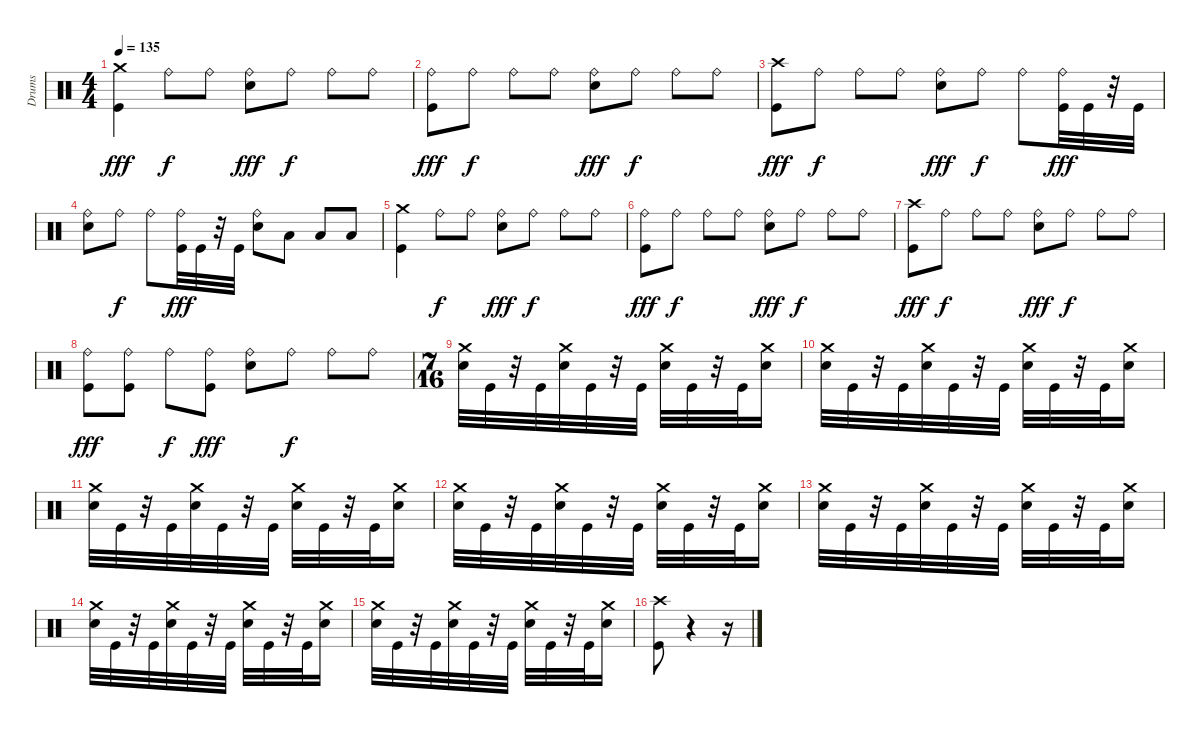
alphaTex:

\track ("Drums" "Drums") {instrument percussion}
\staff {score}
\articulation defaults
\ts (4 4)
\tempo 135
\clef neutral
\ks c
("Kick (hit)" "Crash medium (hit)").4{dy fff} "Ride (bell)".8{dy f} "Ride (bell)".8 ("Electric Snare (hit)" "Ride (bell)").8{dy fff} "Ride (bell)".8{dy f} "Ride (bell)".8 "Ride (bell)".8 |
("Kick (hit)" "Ride (bell)").8{dy fff} "Ride (bell)".8{dy f} "Ride (bell)".8 "Ride (bell)".8 ("Electric Snare (hit)" "Ride (bell)").8{dy fff} "Ride (bell)".8{dy f} "Ride (bell)".8 "Ride (bell)".8 |
("Kick (hit)" "Crash high (hit)").8{dy fff} "Ride (bell)".8{dy f} "Ride (bell)".8 "Ride (bell)".8 ("Electric Snare (hit)" "Ride (bell)").8{dy fff} "Ride (bell)".8{dy f} "Ride (bell)".8 ("Kick (hit)" "Ride (bell)").32{dy fff} "Kick (hit)".32 r.32 "Kick (hit)".32 |
("Ride (bell)" "Electric Snare (hit)").8 "Ride (bell)".8{dy f} "Ride (bell)".8 ("Kick (hit)" "Ride (bell)").32{dy fff} "Kick (hit)".32 r.32 "Kick (hit)".32 ("Electric Snare (hit)" "Ride (bell)").8 "Low Floor Tom (hit)".8 "Low Floor Tom (hit)".8 "Low Floor Tom (hit)".8 |
("Kick (hit)" "Crash medium (hit)").4 "Ride (bell)".8{dy f} "Ride (bell)".8 ("Electric Snare (hit)" "Ride (bell)").8{dy fff} "Ride (bell)".8{dy f} "Ride (bell)".8 "Ride (bell)".8 |
("Kick (hit)" "Ride (bell)").8{dy fff} "Ride (bell)".8{dy f} "Ride (bell)".8 "Ride (bell)".8 ("Electric Snare (hit)" "Ride (bell)").8{dy fff} "Ride (bell)".8{dy f} "Ride (bell)".8 "Ride (bell)".8 |
("Kick (hit)" "Crash high (hit)").8{dy fff} "Ride (bell)".8{dy f} "Ride (bell)".8 "Ride (bell)".8 ("Electric Snare (hit)" "Ride (bell)").8{dy fff} "Ride (bell)".8{dy f} "Ride (bell)".8 "Ride (bell)".8 |
("Kick (hit)" "Ride (bell)").8{dy fff} ("Kick (hit)" "Ride (bell)").8 "Ride (bell)".8{dy f} ("Kick (hit)" "Ride (bell)").8{dy fff} ("Electric Snare (hit)" "Ride (bell)").8 "Ride (bell)".8{dy f} "Ride (bell)".8 "Ride (bell)".8 |
\ts (7 16)
("Electric Snare (hit)" "Crash medium (hit)").32 "Kick (hit)".32 r.32 "Kick (hit)".32 ("Electric Snare (hit)" "Crash medium (hit)").32 "Kick (hit)".32 r.32 "Kick (hit)".32 ("Electric Snare (hit)" "Crash medium (hit)").32 "Kick (hit)".32 r.32 "Kick (hit)".32 ("Electric Snare (hit)" "Crash medium (hit)").16 |
("Electric Snare (hit)" "Crash medium (hit)").32 "Kick (hit)".32 r.32 "Kick (hit)".32 ("Electric Snare (hit)" "Crash medium (hit)").32 "Kick (hit)".32 r.32 "Kick (hit)".32 ("Electric Snare (hit)" "Crash medium (hit)").32 "Kick (hit)".32 r.32 "Kick (hit)".32 ("Electric Snare (hit)" "Crash medium (hit)").16 |
("Electric Snare (hit)" "Crash medium (hit)").32 "Kick (hit)".32 r.32 "Kick (hit)".32 ("Electric Snare (hit)" "Crash medium (hit)").32 "Kick (hit)".32 r.32 "Kick (hit)".32 ("Electric Snare (hit)" "Crash medium (hit)").32 "Kick (hit)".32 r.32 "Kick (hit)".32 ("Electric Snare (hit)" "Crash medium (hit)").16 |
("Electric Snare (hit)" "Crash medium (hit)").32 "Kick (hit)".32 r.32 "Kick (hit)".32 ("Electric Snare (hit)" "Crash medium (hit)").32 "Kick (hit)".32 r.32 "Kick (hit)".32 ("Electric Snare (hit)" "Crash medium (hit)").32 "Kick (hit)".32 r.32 "Kick (hit)".32 ("Electric Snare (hit)" "Crash medium (hit)").16 |
("Electric Snare (hit)" "Crash medium (hit)").32 "Kick (hit)".32 r.32 "Kick (hit)".32 ("Electric Snare (hit)" "Crash medium (hit)").32 "Kick (hit)".32 r.32 "Kick (hit)".32 ("Electric Snare (hit)" "Crash medium (hit)").32 "Kick (hit)".32 r.32 "Kick (hit)".32 ("Electric Snare (hit)" "Crash medium (hit)").16 |
("Electric Snare (hit)" "Crash medium (hit)").32 "Kick (hit)".32 r.32 "Kick (hit)".32 ("Electric Snare (hit)" "Crash medium (hit)").32 "Kick (hit)".32 r.32 "Kick (hit)".32 ("Electric Snare (hit)" "Crash medium (hit)").32 "Kick (hit)".32 r.32 "Kick (hit)".32 ("Electric Snare (hit)" "Crash medium (hit)").16 |
("Electric Snare (hit)" "Crash medium (hit)").32 "Kick (hit)".32 r.32 "Kick (hit)".32 ("Electric Snare (hit)" "Crash medium (hit)").32 "Kick (hit)".32 r.32 "Kick (hit)".32 ("Electric Snare (hit)" "Crash medium (hit)").32 "Kick (hit)".32 r.32 "Kick (hit)".32 ("Electric Snare (hit)" "Crash medium (hit)").16 |
("Kick (hit)" "Crash high (hit)").8 r.4 r.16
